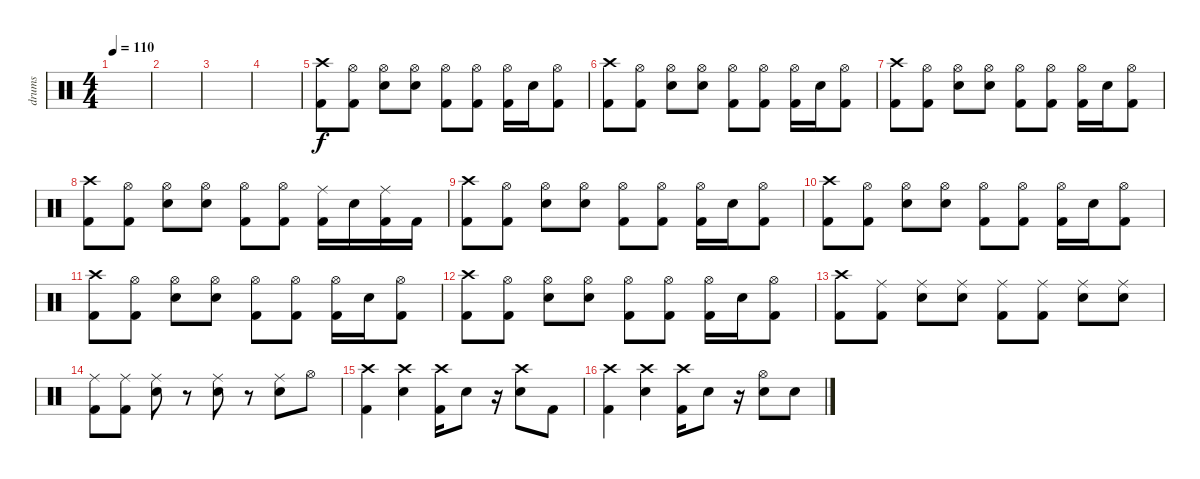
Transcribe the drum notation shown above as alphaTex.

\track ("drums" "drums") {instrument percussion}
\staff {score}
\articulation defaults
\ts (4 4)
\tempo 110
\clef neutral
\ks c
|
|
|
|
("Crash high (hit)" "Kick (hit) 2").8 ("Hi-Hat (open)" "Kick (hit) 2").8 ("Hi-Hat (open)" "Snare (hit) 2").8 ("Hi-Hat (open)" "Snare (hit) 2").8 ("Hi-Hat (open)" "Kick (hit) 2").8 ("Hi-Hat (open)" "Kick (hit) 2").8 ("Hi-Hat (open)" "Kick (hit) 2").16 "Snare (hit) 2".16 ("Hi-Hat (open)" "Kick (hit) 2").8 |
("Crash high (hit)" "Kick (hit) 2").8 ("Hi-Hat (open)" "Kick (hit) 2").8 ("Hi-Hat (open)" "Snare (hit) 2").8 ("Hi-Hat (open)" "Snare (hit) 2").8 ("Hi-Hat (open)" "Kick (hit) 2").8 ("Hi-Hat (open)" "Kick (hit) 2").8 ("Hi-Hat (open)" "Kick (hit) 2").16 "Snare (hit) 2".16 ("Hi-Hat (open)" "Kick (hit) 2").8 |
("Crash high (hit)" "Kick (hit) 2").8 ("Hi-Hat (open)" "Kick (hit) 2").8 ("Hi-Hat (open)" "Snare (hit) 2").8 ("Hi-Hat (open)" "Snare (hit) 2").8 ("Hi-Hat (open)" "Kick (hit) 2").8 ("Hi-Hat (open)" "Kick (hit) 2").8 ("Hi-Hat (open)" "Kick (hit) 2").16 "Snare (hit) 2".16 ("Hi-Hat (open)" "Kick (hit) 2").8 |
("Crash high (hit)" "Kick (hit) 2").8 ("Hi-Hat (open)" "Kick (hit) 2").8 ("Hi-Hat (open)" "Snare (hit) 2").8 ("Hi-Hat (open)" "Snare (hit) 2").8 ("Hi-Hat (open)" "Kick (hit) 2").8 ("Hi-Hat (open)" "Kick (hit) 2").8 ("Ride (middle)" "Kick (hit) 2").16 "Snare (hit) 2".16 ("Ride (middle)" "Kick (hit) 2").16 "Kick (hit) 2".16 |
("Crash high (hit)" "Kick (hit) 2").8 ("Hi-Hat (open)" "Kick (hit) 2").8 ("Hi-Hat (open)" "Snare (hit) 2").8 ("Hi-Hat (open)" "Snare (hit) 2").8 ("Hi-Hat (open)" "Kick (hit) 2").8 ("Hi-Hat (open)" "Kick (hit) 2").8 ("Hi-Hat (open)" "Kick (hit) 2").16 "Snare (hit) 2".16 ("Hi-Hat (open)" "Kick (hit) 2").8 |
("Crash high (hit)" "Kick (hit) 2").8 ("Hi-Hat (open)" "Kick (hit) 2").8 ("Hi-Hat (open)" "Snare (hit) 2").8 ("Hi-Hat (open)" "Snare (hit) 2").8 ("Hi-Hat (open)" "Kick (hit) 2").8 ("Hi-Hat (open)" "Kick (hit) 2").8 ("Hi-Hat (open)" "Kick (hit) 2").16 "Snare (hit) 2".16 ("Hi-Hat (open)" "Kick (hit) 2").8 |
("Crash high (hit)" "Kick (hit) 2").8 ("Hi-Hat (open)" "Kick (hit) 2").8 ("Hi-Hat (open)" "Snare (hit) 2").8 ("Hi-Hat (open)" "Snare (hit) 2").8 ("Hi-Hat (open)" "Kick (hit) 2").8 ("Hi-Hat (open)" "Kick (hit) 2").8 ("Hi-Hat (open)" "Kick (hit) 2").16 "Snare (hit) 2".16 ("Hi-Hat (open)" "Kick (hit) 2").8 |
("Crash high (hit)" "Kick (hit) 2").8 ("Hi-Hat (open)" "Kick (hit) 2").8 ("Hi-Hat (open)" "Snare (hit) 2").8 ("Hi-Hat (open)" "Snare (hit) 2").8 ("Hi-Hat (open)" "Kick (hit) 2").8 ("Hi-Hat (open)" "Kick (hit) 2").8 ("Hi-Hat (open)" "Kick (hit) 2").16 "Snare (hit) 2".16 ("Hi-Hat (open)" "Kick (hit) 2").8 |
("Crash high (hit)" "Kick (hit) 2").8 ("Ride (middle)" "Kick (hit) 2").8 ("Ride (middle)" "Snare (hit) 2").8 ("Ride (middle)" "Snare (hit) 2").8 ("Ride (middle)" "Kick (hit) 2").8 ("Ride (middle)" "Kick (hit) 2").8 ("Ride (middle)" "Snare (hit) 2").8 ("Ride (middle)" "Snare (hit) 2").8 |
("Ride (middle)" "Kick (hit) 2").8 ("Ride (middle)" "Kick (hit) 2").8 ("Ride (middle)" "Snare (hit) 2").8 r.8 ("Ride (middle)" "Snare (hit) 2").8 r.8 ("Ride (middle)" "Snare (hit) 2").8 "Hi-Hat (open)".8 |
("Crash high (hit)" "Kick (hit) 2").4 ("Crash high (hit)" "Snare (hit) 2").4 ("Crash high (hit)" "Kick (hit) 2").16 "Snare (hit) 2".8 r.16 ("Crash high (hit)" "Snare (hit) 2").8 "Kick (hit) 2".8 |
("Crash high (hit)" "Kick (hit) 2").4 ("Crash high (hit)" "Snare (hit) 2").4 ("Crash high (hit)" "Kick (hit) 2").16 "Snare (hit) 2".8 r.16 ("Hi-Hat (open)" "Snare (hit) 2").8 "Snare (hit) 2".8
